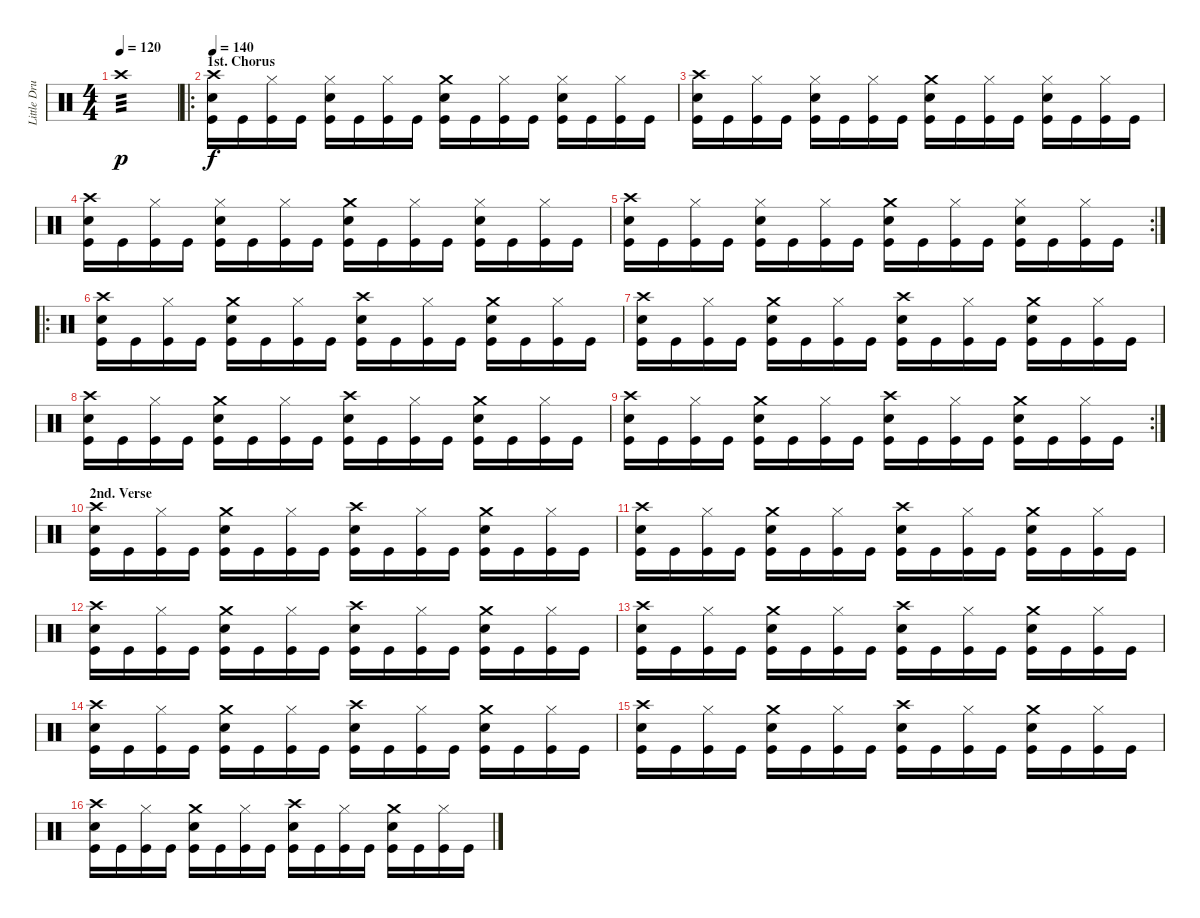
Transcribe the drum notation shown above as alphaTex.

\track ("Little Drummer Boy" "Little Dru") {instrument percussion}
\staff {score}
\articulation defaults
\ts (4 4)
\tempo 120
\clef neutral
\ks c "Crash high (hit)".1{tp 3 dy p}
|
\ro
\section ("" "1st. Chorus")
\tempo 140
("Crash high (hit)" "Snare (hit) 2" "Kick (hit)").16{dy f} "Kick (hit)".16 ("Hi-Hat (closed)" "Kick (hit)").16 "Kick (hit)".16 ("Hi-Hat (closed)" "Snare (hit) 2" "Kick (hit)").16 "Kick (hit)".16 ("Hi-Hat (closed)" "Kick (hit)").16 "Kick (hit)".16 ("Crash medium (hit)" "Snare (hit) 2" "Kick (hit)").16 "Kick (hit)".16 ("Hi-Hat (closed)" "Kick (hit)").16 "Kick (hit)".16 ("Hi-Hat (closed)" "Snare (hit) 2" "Kick (hit)").16 "Kick (hit)".16 ("Hi-Hat (closed)" "Kick (hit)").16 "Kick (hit)".16 |
("Crash high (hit)" "Snare (hit) 2" "Kick (hit)").16 "Kick (hit)".16 ("Hi-Hat (closed)" "Kick (hit)").16 "Kick (hit)".16 ("Hi-Hat (closed)" "Snare (hit) 2" "Kick (hit)").16 "Kick (hit)".16 ("Hi-Hat (closed)" "Kick (hit)").16 "Kick (hit)".16 ("Crash medium (hit)" "Snare (hit) 2" "Kick (hit)").16 "Kick (hit)".16 ("Hi-Hat (closed)" "Kick (hit)").16 "Kick (hit)".16 ("Hi-Hat (closed)" "Snare (hit) 2" "Kick (hit)").16 "Kick (hit)".16 ("Hi-Hat (closed)" "Kick (hit)").16 "Kick (hit)".16 |
("Crash high (hit)" "Snare (hit) 2" "Kick (hit)").16 "Kick (hit)".16 ("Hi-Hat (closed)" "Kick (hit)").16 "Kick (hit)".16 ("Hi-Hat (closed)" "Snare (hit) 2" "Kick (hit)").16 "Kick (hit)".16 ("Hi-Hat (closed)" "Kick (hit)").16 "Kick (hit)".16 ("Crash medium (hit)" "Snare (hit) 2" "Kick (hit)").16 "Kick (hit)".16 ("Hi-Hat (closed)" "Kick (hit)").16 "Kick (hit)".16 ("Hi-Hat (closed)" "Snare (hit) 2" "Kick (hit)").16 "Kick (hit)".16 ("Hi-Hat (closed)" "Kick (hit)").16 "Kick (hit)".16 |
\rc 2
("Crash high (hit)" "Snare (hit) 2" "Kick (hit)").16 "Kick (hit)".16 ("Hi-Hat (closed)" "Kick (hit)").16 "Kick (hit)".16 ("Hi-Hat (closed)" "Snare (hit) 2" "Kick (hit)").16 "Kick (hit)".16 ("Hi-Hat (closed)" "Kick (hit)").16 "Kick (hit)".16 ("Crash medium (hit)" "Snare (hit) 2" "Kick (hit)").16 "Kick (hit)".16 ("Hi-Hat (closed)" "Kick (hit)").16 "Kick (hit)".16 ("Hi-Hat (closed)" "Snare (hit) 2" "Kick (hit)").16 "Kick (hit)".16 ("Hi-Hat (closed)" "Kick (hit)").16 "Kick (hit)".16 |
\ro
("Crash high (hit)" "Snare (hit) 2" "Kick (hit)").16 "Kick (hit)".16 ("Hi-Hat (closed)" "Kick (hit)").16 "Kick (hit)".16 ("Crash medium (hit)" "Snare (hit) 2" "Kick (hit)").16 "Kick (hit)".16 ("Hi-Hat (closed)" "Kick (hit)").16 "Kick (hit)".16 ("Crash high (hit)" "Snare (hit) 2" "Kick (hit)").16 "Kick (hit)".16 ("Hi-Hat (closed)" "Kick (hit)").16 "Kick (hit)".16 ("Crash medium (hit)" "Snare (hit) 2" "Kick (hit)").16 "Kick (hit)".16 ("Hi-Hat (closed)" "Kick (hit)").16 "Kick (hit)".16 |
("Crash high (hit)" "Snare (hit) 2" "Kick (hit)").16 "Kick (hit)".16 ("Hi-Hat (closed)" "Kick (hit)").16 "Kick (hit)".16 ("Crash medium (hit)" "Snare (hit) 2" "Kick (hit)").16 "Kick (hit)".16 ("Hi-Hat (closed)" "Kick (hit)").16 "Kick (hit)".16 ("Crash high (hit)" "Snare (hit) 2" "Kick (hit)").16 "Kick (hit)".16 ("Hi-Hat (closed)" "Kick (hit)").16 "Kick (hit)".16 ("Crash medium (hit)" "Snare (hit) 2" "Kick (hit)").16 "Kick (hit)".16 ("Hi-Hat (closed)" "Kick (hit)").16 "Kick (hit)".16 |
("Crash high (hit)" "Snare (hit) 2" "Kick (hit)").16 "Kick (hit)".16 ("Hi-Hat (closed)" "Kick (hit)").16 "Kick (hit)".16 ("Crash medium (hit)" "Snare (hit) 2" "Kick (hit)").16 "Kick (hit)".16 ("Hi-Hat (closed)" "Kick (hit)").16 "Kick (hit)".16 ("Crash high (hit)" "Snare (hit) 2" "Kick (hit)").16 "Kick (hit)".16 ("Hi-Hat (closed)" "Kick (hit)").16 "Kick (hit)".16 ("Crash medium (hit)" "Snare (hit) 2" "Kick (hit)").16 "Kick (hit)".16 ("Hi-Hat (closed)" "Kick (hit)").16 "Kick (hit)".16 |
\rc 2
("Crash high (hit)" "Snare (hit) 2" "Kick (hit)").16 "Kick (hit)".16 ("Hi-Hat (closed)" "Kick (hit)").16 "Kick (hit)".16 ("Crash medium (hit)" "Snare (hit) 2" "Kick (hit)").16 "Kick (hit)".16 ("Hi-Hat (closed)" "Kick (hit)").16 "Kick (hit)".16 ("Crash high (hit)" "Snare (hit) 2" "Kick (hit)").16 "Kick (hit)".16 ("Hi-Hat (closed)" "Kick (hit)").16 "Kick (hit)".16 ("Crash medium (hit)" "Snare (hit) 2" "Kick (hit)").16 "Kick (hit)".16 ("Hi-Hat (closed)" "Kick (hit)").16 "Kick (hit)".16 |
\section ("" "2nd. Verse")
("Crash high (hit)" "Snare (hit) 2" "Kick (hit)").16 "Kick (hit)".16 ("Hi-Hat (closed)" "Kick (hit)").16 "Kick (hit)".16 ("Crash medium (hit)" "Snare (hit) 2" "Kick (hit)").16 "Kick (hit)".16 ("Hi-Hat (closed)" "Kick (hit)").16 "Kick (hit)".16 ("Crash high (hit)" "Snare (hit) 2" "Kick (hit)").16 "Kick (hit)".16 ("Hi-Hat (closed)" "Kick (hit)").16 "Kick (hit)".16 ("Crash medium (hit)" "Snare (hit) 2" "Kick (hit)").16 "Kick (hit)".16 ("Hi-Hat (closed)" "Kick (hit)").16 "Kick (hit)".16 |
("Crash high (hit)" "Snare (hit) 2" "Kick (hit)").16 "Kick (hit)".16 ("Hi-Hat (closed)" "Kick (hit)").16 "Kick (hit)".16 ("Crash medium (hit)" "Snare (hit) 2" "Kick (hit)").16 "Kick (hit)".16 ("Hi-Hat (closed)" "Kick (hit)").16 "Kick (hit)".16 ("Crash high (hit)" "Snare (hit) 2" "Kick (hit)").16 "Kick (hit)".16 ("Hi-Hat (closed)" "Kick (hit)").16 "Kick (hit)".16 ("Crash medium (hit)" "Snare (hit) 2" "Kick (hit)").16 "Kick (hit)".16 ("Hi-Hat (closed)" "Kick (hit)").16 "Kick (hit)".16 |
("Crash high (hit)" "Snare (hit) 2" "Kick (hit)").16 "Kick (hit)".16 ("Hi-Hat (closed)" "Kick (hit)").16 "Kick (hit)".16 ("Crash medium (hit)" "Snare (hit) 2" "Kick (hit)").16 "Kick (hit)".16 ("Hi-Hat (closed)" "Kick (hit)").16 "Kick (hit)".16 ("Crash high (hit)" "Snare (hit) 2" "Kick (hit)").16 "Kick (hit)".16 ("Hi-Hat (closed)" "Kick (hit)").16 "Kick (hit)".16 ("Crash medium (hit)" "Snare (hit) 2" "Kick (hit)").16 "Kick (hit)".16 ("Hi-Hat (closed)" "Kick (hit)").16 "Kick (hit)".16 |
("Crash high (hit)" "Snare (hit) 2" "Kick (hit)").16 "Kick (hit)".16 ("Hi-Hat (closed)" "Kick (hit)").16 "Kick (hit)".16 ("Crash medium (hit)" "Snare (hit) 2" "Kick (hit)").16 "Kick (hit)".16 ("Hi-Hat (closed)" "Kick (hit)").16 "Kick (hit)".16 ("Crash high (hit)" "Snare (hit) 2" "Kick (hit)").16 "Kick (hit)".16 ("Hi-Hat (closed)" "Kick (hit)").16 "Kick (hit)".16 ("Crash medium (hit)" "Snare (hit) 2" "Kick (hit)").16 "Kick (hit)".16 ("Hi-Hat (closed)" "Kick (hit)").16 "Kick (hit)".16 |
("Crash high (hit)" "Snare (hit) 2" "Kick (hit)").16 "Kick (hit)".16 ("Hi-Hat (closed)" "Kick (hit)").16 "Kick (hit)".16 ("Crash medium (hit)" "Snare (hit) 2" "Kick (hit)").16 "Kick (hit)".16 ("Hi-Hat (closed)" "Kick (hit)").16 "Kick (hit)".16 ("Crash high (hit)" "Snare (hit) 2" "Kick (hit)").16 "Kick (hit)".16 ("Hi-Hat (closed)" "Kick (hit)").16 "Kick (hit)".16 ("Crash medium (hit)" "Snare (hit) 2" "Kick (hit)").16 "Kick (hit)".16 ("Hi-Hat (closed)" "Kick (hit)").16 "Kick (hit)".16 |
("Crash high (hit)" "Snare (hit) 2" "Kick (hit)").16 "Kick (hit)".16 ("Hi-Hat (closed)" "Kick (hit)").16 "Kick (hit)".16 ("Crash medium (hit)" "Snare (hit) 2" "Kick (hit)").16 "Kick (hit)".16 ("Hi-Hat (closed)" "Kick (hit)").16 "Kick (hit)".16 ("Crash high (hit)" "Snare (hit) 2" "Kick (hit)").16 "Kick (hit)".16 ("Hi-Hat (closed)" "Kick (hit)").16 "Kick (hit)".16 ("Crash medium (hit)" "Snare (hit) 2" "Kick (hit)").16 "Kick (hit)".16 ("Hi-Hat (closed)" "Kick (hit)").16 "Kick (hit)".16 |
("Crash high (hit)" "Snare (hit) 2" "Kick (hit)").16 "Kick (hit)".16 ("Hi-Hat (closed)" "Kick (hit)").16 "Kick (hit)".16 ("Crash medium (hit)" "Snare (hit) 2" "Kick (hit)").16 "Kick (hit)".16 ("Hi-Hat (closed)" "Kick (hit)").16 "Kick (hit)".16 ("Crash high (hit)" "Snare (hit) 2" "Kick (hit)").16 "Kick (hit)".16 ("Hi-Hat (closed)" "Kick (hit)").16 "Kick (hit)".16 ("Crash medium (hit)" "Snare (hit) 2" "Kick (hit)").16 "Kick (hit)".16 ("Hi-Hat (closed)" "Kick (hit)").16 "Kick (hit)".16
